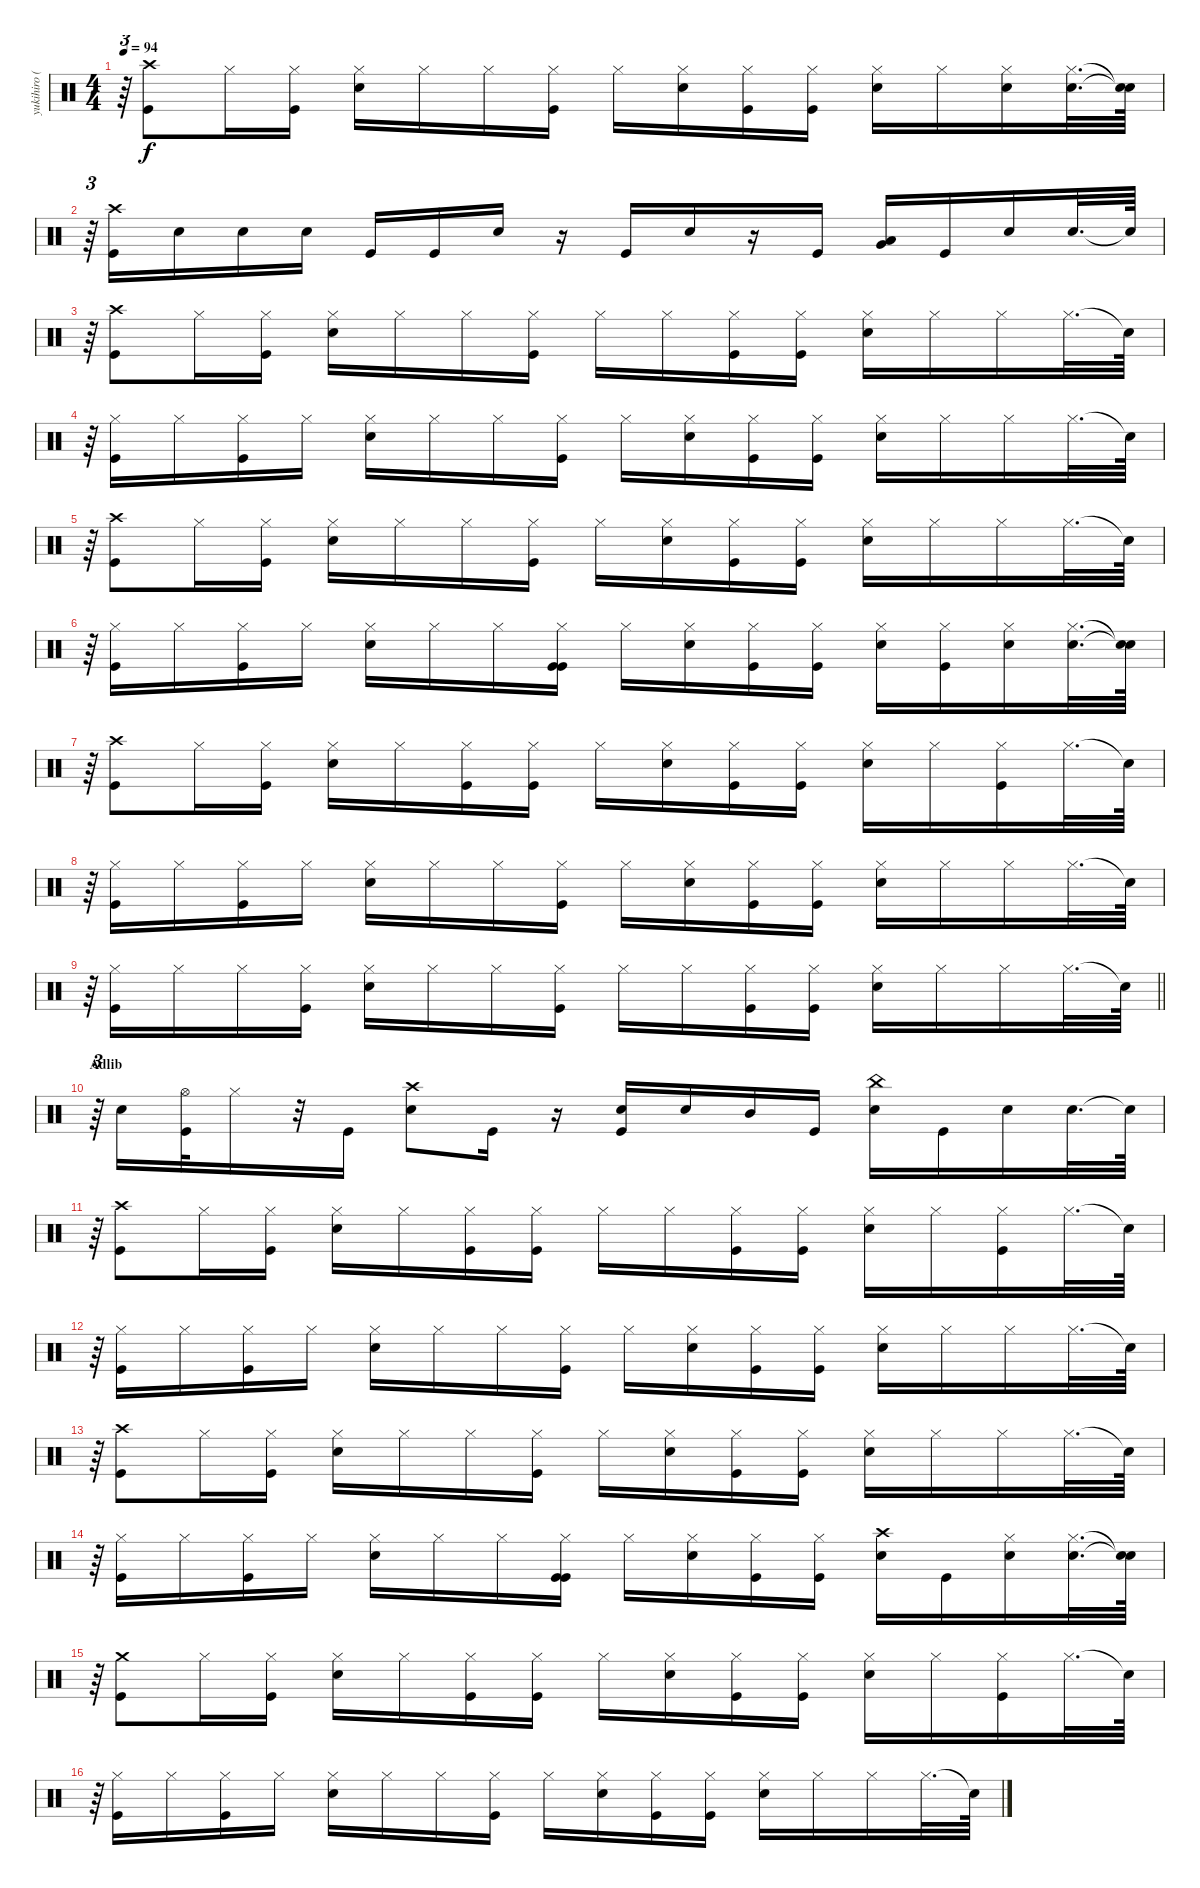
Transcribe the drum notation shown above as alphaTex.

\track ("yukihiro (Drums)" "yukihiro (") {instrument percussion}
\staff {score}
\articulation defaults
\ts (4 4)
\tempo 94
\clef neutral
\ks c
r.64{tu (3 2) dy f} ("Crash high (hit)" "Kick (hit)").8 "Hi-Hat (closed)".16 ("Kick (hit)" "Hi-Hat (closed)").16 ("Electric Snare (hit)" "Hi-Hat (closed)").16 "Hi-Hat (closed)".16 "Hi-Hat (closed)".16 ("Kick (hit)" "Hi-Hat (closed)").16 "Hi-Hat (closed)".16 ("Electric Snare (hit)" "Hi-Hat (closed)").16 ("Kick (hit)" "Hi-Hat (closed)").16 ("Kick (hit)" "Hi-Hat (closed)").16 ("Electric Snare (hit)" "Hi-Hat (closed)").16 "Hi-Hat (closed)".16 ("Electric Snare (hit)" "Hi-Hat (closed)").16 ("Electric Snare (hit)" "Hi-Hat (closed)").32{d} ("Snare (hit)"{t} "Snare (hit)"{t}).64 |
r.64{tu (3 2)} ("Crash high (hit)" "Kick (hit)").16 "Electric Snare (hit)".16 "Electric Snare (hit)".16 "Electric Snare (hit)".16 "Kick (hit)".16 "Kick (hit)".16 "Electric Snare (hit)".16 r.16 "Kick (hit)".16 "Electric Snare (hit)".16 r.16 "Kick (hit)".16 ("Low Tom (hit)" "Very Low Tom (hit)").16 "Kick (hit)".16 "Electric Snare (hit)".16 "Electric Snare (hit)".32{d} "Snare (hit)"{t}.64 |
r.64{tu (3 2)} ("Crash high (hit)" "Kick (hit)").8 "Hi-Hat (closed)".16 ("Kick (hit)" "Hi-Hat (closed)").16 ("Electric Snare (hit)" "Hi-Hat (closed)").16 "Hi-Hat (closed)".16 "Hi-Hat (closed)".16 ("Kick (hit)" "Hi-Hat (closed)").16 "Hi-Hat (closed)".16 "Hi-Hat (closed)".16 ("Kick (hit)" "Hi-Hat (closed)").16 ("Kick (hit)" "Hi-Hat (closed)").16 ("Electric Snare (hit)" "Hi-Hat (closed)").16 "Hi-Hat (closed)".16 "Hi-Hat (closed)".16 "Hi-Hat (closed)".32{d} "Snare (hit)"{t}.64 |
r.64{tu (3 2)} ("Kick (hit)" "Hi-Hat (closed)").16 "Hi-Hat (closed)".16 ("Kick (hit)" "Hi-Hat (closed)").16 "Hi-Hat (closed)".16 ("Electric Snare (hit)" "Hi-Hat (closed)").16 "Hi-Hat (closed)".16 "Hi-Hat (closed)".16 ("Kick (hit)" "Hi-Hat (closed)").16 "Hi-Hat (closed)".16 ("Electric Snare (hit)" "Hi-Hat (closed)").16 ("Kick (hit)" "Hi-Hat (closed)").16 ("Kick (hit)" "Hi-Hat (closed)").16 ("Electric Snare (hit)" "Hi-Hat (closed)").16 "Hi-Hat (closed)".16 "Hi-Hat (closed)".16 "Hi-Hat (closed)".32{d} "Snare (hit)"{t}.64 |
r.64{tu (3 2)} ("Crash high (hit)" "Kick (hit)").8 "Hi-Hat (closed)".16 ("Kick (hit)" "Hi-Hat (closed)").16 ("Electric Snare (hit)" "Hi-Hat (closed)").16 "Hi-Hat (closed)".16 "Hi-Hat (closed)".16 ("Kick (hit)" "Hi-Hat (closed)").16 "Hi-Hat (closed)".16 ("Electric Snare (hit)" "Hi-Hat (closed)").16 ("Kick (hit)" "Hi-Hat (closed)").16 ("Kick (hit)" "Hi-Hat (closed)").16 ("Electric Snare (hit)" "Hi-Hat (closed)").16 "Hi-Hat (closed)".16 "Hi-Hat (closed)".16 "Hi-Hat (closed)".32{d} "Snare (hit)"{t}.64 |
r.64{tu (3 2)} ("Kick (hit)" "Hi-Hat (closed)").16 "Hi-Hat (closed)".16 ("Kick (hit)" "Hi-Hat (closed)").16 "Hi-Hat (closed)".16 ("Electric Snare (hit)" "Hi-Hat (closed)").16 "Hi-Hat (closed)".16 "Hi-Hat (closed)".16 ("Kick (hit)" "Kick (hit)" "Hi-Hat (closed)").16 "Hi-Hat (closed)".16 ("Electric Snare (hit)" "Hi-Hat (closed)").16 ("Kick (hit)" "Hi-Hat (closed)").16 ("Kick (hit)" "Hi-Hat (closed)").16 ("Electric Snare (hit)" "Hi-Hat (closed)").16 ("Kick (hit)" "Hi-Hat (closed)").16 ("Electric Snare (hit)" "Hi-Hat (closed)").16 ("Electric Snare (hit)" "Hi-Hat (closed)").32{d} ("Snare (hit)"{t} "Snare (hit)"{t}).64 |
r.64{tu (3 2)} ("Crash high (hit)" "Kick (hit)").8 "Hi-Hat (closed)".16 ("Kick (hit)" "Hi-Hat (closed)").16 ("Electric Snare (hit)" "Hi-Hat (closed)").16 "Hi-Hat (closed)".16 ("Kick (hit)" "Hi-Hat (closed)").16 ("Kick (hit)" "Hi-Hat (closed)").16 "Hi-Hat (closed)".16 ("Electric Snare (hit)" "Hi-Hat (closed)").16 ("Kick (hit)" "Hi-Hat (closed)").16 ("Kick (hit)" "Hi-Hat (closed)").16 ("Electric Snare (hit)" "Hi-Hat (closed)").16 "Hi-Hat (closed)".16 ("Kick (hit)" "Hi-Hat (closed)").16 "Hi-Hat (closed)".32{d} "Snare (hit)"{t}.64 |
r.64{tu (3 2)} ("Kick (hit)" "Hi-Hat (closed)").16 "Hi-Hat (closed)".16 ("Kick (hit)" "Hi-Hat (closed)").16 "Hi-Hat (closed)".16 ("Electric Snare (hit)" "Hi-Hat (closed)").16 "Hi-Hat (closed)".16 "Hi-Hat (closed)".16 ("Kick (hit)" "Hi-Hat (closed)").16 "Hi-Hat (closed)".16 ("Electric Snare (hit)" "Hi-Hat (closed)").16 ("Kick (hit)" "Hi-Hat (closed)").16 ("Kick (hit)" "Hi-Hat (closed)").16 ("Electric Snare (hit)" "Hi-Hat (closed)").16 "Hi-Hat (closed)".16 "Hi-Hat (closed)".16 "Hi-Hat (closed)".32{d} "Snare (hit)"{t}.64 |
\barLineRight lightlight
r.64{tu (3 2)} ("Kick (hit)" "Hi-Hat (closed)").16 "Hi-Hat (closed)".16 "Hi-Hat (closed)".16 ("Kick (hit)" "Hi-Hat (closed)").16 ("Electric Snare (hit)" "Hi-Hat (closed)").16 "Hi-Hat (closed)".16 "Hi-Hat (closed)".16 ("Kick (hit)" "Hi-Hat (closed)").16 "Hi-Hat (closed)".16 "Hi-Hat (closed)".16 ("Kick (hit)" "Hi-Hat (closed)").16 ("Kick (hit)" "Hi-Hat (closed)").16 ("Electric Snare (hit)" "Hi-Hat (closed)").16 "Hi-Hat (closed)".16 "Hi-Hat (closed)".16 "Hi-Hat (closed)".32{d} "Snare (hit)"{t}.64 |
\section ("" "Adlib")
r.64{tu (3 2)} "Electric Snare (hit)".16 ("Kick (hit)" "Hi-Hat (open)").32 "Hi-Hat (closed)".16 r.32 "Kick (hit)".16 ("Electric Snare (hit)" "Crash high (hit)").8 "Kick (hit)".16 r.16 ("Kick (hit)" "Electric Snare (hit)").16 "Electric Snare (hit)".16 "Mid Tom (hit)".16 "Kick (hit)".16 ("Electric Snare (hit)" "China (hit)").16 "Kick (hit)".16 "Electric Snare (hit)".16 "Electric Snare (hit)".32{d} "Snare (hit)"{t}.64 |
r.64{tu (3 2)} ("Crash high (hit)" "Kick (hit)").8 "Hi-Hat (closed)".16 ("Kick (hit)" "Hi-Hat (closed)").16 ("Electric Snare (hit)" "Hi-Hat (closed)").16 "Hi-Hat (closed)".16 ("Kick (hit)" "Hi-Hat (closed)").16 ("Kick (hit)" "Hi-Hat (closed)").16 "Hi-Hat (closed)".16 "Hi-Hat (closed)".16 ("Kick (hit)" "Hi-Hat (closed)").16 ("Kick (hit)" "Hi-Hat (closed)").16 ("Electric Snare (hit)" "Hi-Hat (closed)").16 "Hi-Hat (closed)".16 ("Kick (hit)" "Hi-Hat (closed)").16 "Hi-Hat (closed)".32{d} "Snare (hit)"{t}.64 |
r.64{tu (3 2)} ("Kick (hit)" "Hi-Hat (closed)").16 "Hi-Hat (closed)".16 ("Kick (hit)" "Hi-Hat (closed)").16 "Hi-Hat (closed)".16 ("Electric Snare (hit)" "Hi-Hat (closed)").16 "Hi-Hat (closed)".16 "Hi-Hat (closed)".16 ("Kick (hit)" "Hi-Hat (closed)").16 "Hi-Hat (closed)".16 ("Electric Snare (hit)" "Hi-Hat (closed)").16 ("Kick (hit)" "Hi-Hat (closed)").16 ("Kick (hit)" "Hi-Hat (closed)").16 ("Electric Snare (hit)" "Hi-Hat (closed)").16 "Hi-Hat (closed)".16 "Hi-Hat (closed)".16 "Hi-Hat (closed)".32{d} "Snare (hit)"{t}.64 |
r.64{tu (3 2)} ("Crash high (hit)" "Kick (hit)").8 "Hi-Hat (closed)".16 ("Kick (hit)" "Hi-Hat (closed)").16 ("Electric Snare (hit)" "Hi-Hat (closed)").16 "Hi-Hat (closed)".16 "Hi-Hat (closed)".16 ("Kick (hit)" "Hi-Hat (closed)").16 "Hi-Hat (closed)".16 ("Electric Snare (hit)" "Hi-Hat (closed)").16 ("Kick (hit)" "Hi-Hat (closed)").16 ("Kick (hit)" "Hi-Hat (closed)").16 ("Electric Snare (hit)" "Hi-Hat (closed)").16 "Hi-Hat (closed)".16 "Hi-Hat (closed)".16 "Hi-Hat (closed)".32{d} "Snare (hit)"{t}.64 |
r.64{tu (3 2)} ("Kick (hit)" "Hi-Hat (closed)").16 "Hi-Hat (closed)".16 ("Kick (hit)" "Hi-Hat (closed)").16 "Hi-Hat (closed)".16 ("Electric Snare (hit)" "Hi-Hat (closed)").16 "Hi-Hat (closed)".16 "Hi-Hat (closed)".16 ("Kick (hit)" "Kick (hit)" "Hi-Hat (closed)").16 "Hi-Hat (closed)".16 ("Electric Snare (hit)" "Hi-Hat (closed)").16 ("Kick (hit)" "Hi-Hat (closed)").16 ("Kick (hit)" "Hi-Hat (closed)").16 ("Electric Snare (hit)" "Crash high (hit)").16 "Kick (hit)".16 ("Electric Snare (hit)" "Hi-Hat (closed)").16 ("Electric Snare (hit)" "Hi-Hat (closed)").32{d} ("Snare (hit)"{t} "Snare (hit)"{t}).64 |
r.64{tu (3 2)} ("Crash medium (hit)" "Kick (hit)").8 "Hi-Hat (closed)".16 ("Kick (hit)" "Hi-Hat (closed)").16 ("Electric Snare (hit)" "Hi-Hat (closed)").16 "Hi-Hat (closed)".16 ("Kick (hit)" "Hi-Hat (closed)").16 ("Kick (hit)" "Hi-Hat (closed)").16 "Hi-Hat (closed)".16 ("Electric Snare (hit)" "Hi-Hat (closed)").16 ("Kick (hit)" "Hi-Hat (closed)").16 ("Kick (hit)" "Hi-Hat (closed)").16 ("Electric Snare (hit)" "Hi-Hat (closed)").16 "Hi-Hat (closed)".16 ("Kick (hit)" "Hi-Hat (closed)").16 "Hi-Hat (closed)".32{d} "Snare (hit)"{t}.64 |
r.64{tu (3 2)} ("Kick (hit)" "Hi-Hat (closed)").16 "Hi-Hat (closed)".16 ("Kick (hit)" "Hi-Hat (closed)").16 "Hi-Hat (closed)".16 ("Electric Snare (hit)" "Hi-Hat (closed)").16 "Hi-Hat (closed)".16 "Hi-Hat (closed)".16 ("Kick (hit)" "Hi-Hat (closed)").16 "Hi-Hat (closed)".16 ("Electric Snare (hit)" "Hi-Hat (closed)").16 ("Kick (hit)" "Hi-Hat (closed)").16 ("Kick (hit)" "Hi-Hat (closed)").16 ("Electric Snare (hit)" "Hi-Hat (closed)").16 "Hi-Hat (closed)".16 "Hi-Hat (closed)".16 "Hi-Hat (closed)".32{d} "Snare (hit)"{t}.64
